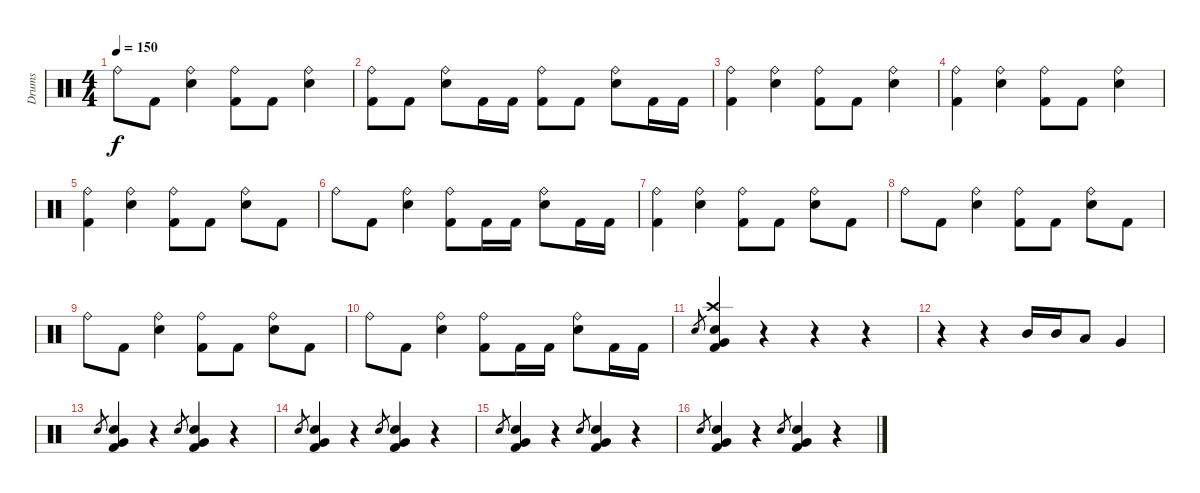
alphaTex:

\track ("Drums" "Drums") {instrument percussion}
\staff {score}
\articulation defaults
\ts (4 4)
\tempo 150
\clef neutral
\ks c "Ride (bell)".8{dy f} "Kick (hit) 2".8
("Ride (bell)" "Electric Snare (hit)").4 ("Ride (bell)" "Kick (hit) 2").8 "Kick (hit) 2".8 ("Ride (bell)" "Electric Snare (hit)").4 |
("Ride (bell)" "Kick (hit) 2").8 "Kick (hit) 2".8 ("Ride (bell)" "Electric Snare (hit)").8 "Kick (hit) 2".16 "Kick (hit) 2".16 ("Ride (bell)" "Kick (hit) 2").8 "Kick (hit) 2".8 ("Ride (bell)" "Electric Snare (hit)").8 "Kick (hit) 2".16 "Kick (hit) 2".16 |
("Ride (bell)" "Kick (hit) 2").4 ("Ride (bell)" "Electric Snare (hit)").4 ("Ride (bell)" "Kick (hit) 2").8 "Kick (hit) 2".8 ("Ride (bell)" "Electric Snare (hit)").4 |
("Ride (bell)" "Kick (hit) 2").4 ("Ride (bell)" "Electric Snare (hit)").4 ("Ride (bell)" "Kick (hit) 2").8 "Kick (hit) 2".8 ("Ride (bell)" "Electric Snare (hit)").4 |
("Ride (bell)" "Kick (hit) 2").4 ("Ride (bell)" "Electric Snare (hit)").4 ("Ride (bell)" "Kick (hit) 2").8 "Kick (hit) 2".8 ("Ride (bell)" "Electric Snare (hit)").8 "Kick (hit) 2".8 |
"Ride (bell)".8 "Kick (hit) 2".8 ("Ride (bell)" "Electric Snare (hit)").4 ("Ride (bell)" "Kick (hit) 2").8 "Kick (hit) 2".16 "Kick (hit) 2".16 ("Ride (bell)" "Electric Snare (hit)").8 "Kick (hit) 2".16 "Kick (hit) 2".16 |
("Ride (bell)" "Kick (hit) 2").4 ("Ride (bell)" "Electric Snare (hit)").4 ("Ride (bell)" "Kick (hit) 2").8 "Kick (hit) 2".8 ("Ride (bell)" "Electric Snare (hit)").8 "Kick (hit) 2".8 |
"Ride (bell)".8 "Kick (hit) 2".8 ("Ride (bell)" "Electric Snare (hit)").4 ("Ride (bell)" "Kick (hit) 2").8 "Kick (hit) 2".8 ("Ride (bell)" "Electric Snare (hit)").8 "Kick (hit) 2".8 |
"Ride (bell)".8 "Kick (hit) 2".8 ("Ride (bell)" "Electric Snare (hit)").4 ("Ride (bell)" "Kick (hit) 2").8 "Kick (hit) 2".8 ("Ride (bell)" "Electric Snare (hit)").8 "Kick (hit) 2".8 |
"Ride (bell)".8 "Kick (hit) 2".8 ("Ride (bell)" "Electric Snare (hit)").4 ("Ride (bell)" "Kick (hit) 2").8 "Kick (hit) 2".16 "Kick (hit) 2".16 ("Ride (bell)" "Electric Snare (hit)").8 "Kick (hit) 2".16 "Kick (hit) 2".16 |
"Electric Snare (hit)".8{gr} ("Crash high (hit)" "Very Low Tom (hit)" "Electric Snare (hit)" "Kick (hit) 2").4 r.4 r.4 r.4 |
r.4 r.4 "Mid Tom (hit)".16 "Mid Tom (hit)".16 "Low Tom (hit)".8 "Very Low Tom (hit)".4 |
"Electric Snare (hit)".8{gr} ("Very Low Tom (hit)" "Electric Snare (hit)" "Kick (hit) 2").4 r.4 "Electric Snare (hit)".8{gr} ("Very Low Tom (hit)" "Electric Snare (hit)" "Kick (hit) 2").4 r.4 |
"Electric Snare (hit)".8{gr} ("Very Low Tom (hit)" "Electric Snare (hit)" "Kick (hit) 2").4 r.4 "Electric Snare (hit)".8{gr} ("Very Low Tom (hit)" "Electric Snare (hit)" "Kick (hit) 2").4 r.4 |
"Electric Snare (hit)".8{gr} ("Very Low Tom (hit)" "Electric Snare (hit)" "Kick (hit) 2").4 r.4 "Electric Snare (hit)".8{gr} ("Very Low Tom (hit)" "Electric Snare (hit)" "Kick (hit) 2").4 r.4 |
"Electric Snare (hit)".8{gr} ("Very Low Tom (hit)" "Electric Snare (hit)" "Kick (hit) 2").4 r.4 "Electric Snare (hit)".8{gr} ("Very Low Tom (hit)" "Electric Snare (hit)" "Kick (hit) 2").4 r.4
